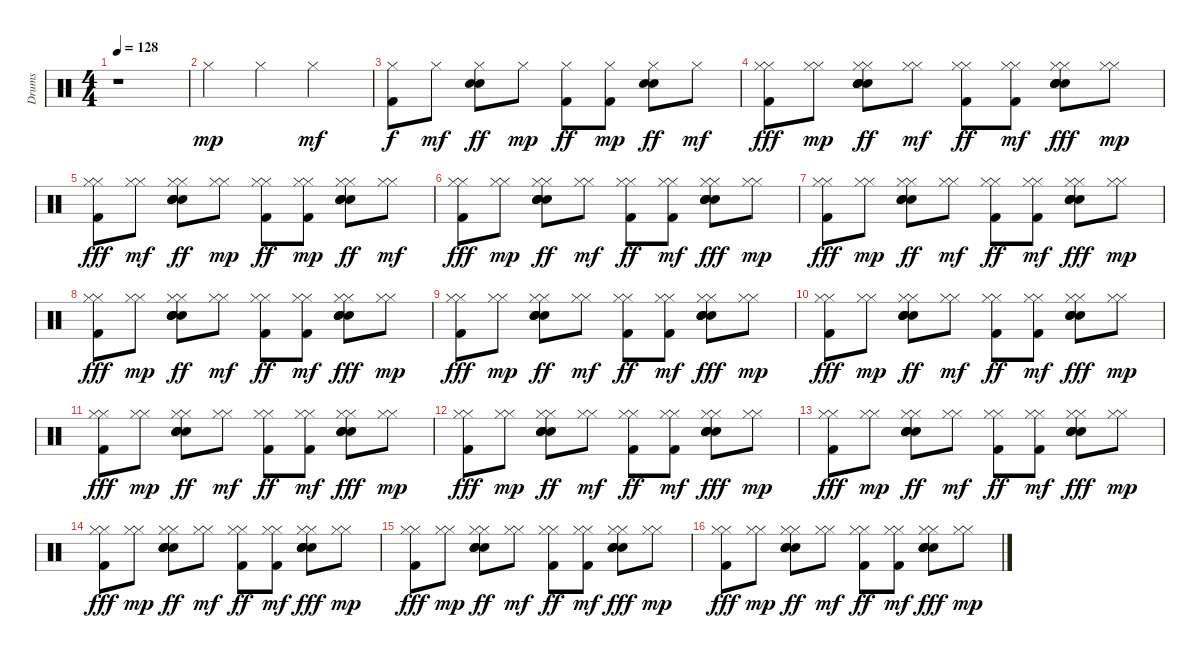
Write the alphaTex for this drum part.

\track ("Drums" "Drums") {instrument percussion}
\staff {score}
\articulation defaults
\ts (4 4)
\tempo 128
\tempo 127
\tempo 128
\clef neutral
\ks c
r.1{dy mp} |
"Hi-Hat (closed)".4 "Hi-Hat (closed)".4 "Hi-Hat (closed)".2{dy mf} |
("Kick (hit) 2" "Hi-Hat (closed)").8{dy f} "Hi-Hat (closed)".8{dy mf} ("Snare (hit) 2" "Hi-Hat (closed)" "Electric Snare (hit)").8{dy ff} "Hi-Hat (closed)".8{dy mp} ("Hi-Hat (closed)" "Kick (hit) 2").8{dy ff} ("Hi-Hat (closed)" "Kick (hit) 2").8{dy mp} ("Snare (hit) 2" "Hi-Hat (closed)" "Electric Snare (hit)").8{dy ff} "Hi-Hat (closed)".8{dy mf} |
("Kick (hit) 2" "Hi-Hat (closed)" "Hi-Hat (closed)").8{dy fff} ("Hi-Hat (closed)" "Hi-Hat (closed)").8{dy mp} ("Hi-Hat (closed)" "Hi-Hat (closed)" "Snare (hit) 2" "Electric Snare (hit)" "Electric Snare (hit)" "Electric Snare (hit)").8{dy ff} ("Hi-Hat (closed)" "Hi-Hat (closed)").8{dy mf} ("Kick (hit) 2" "Hi-Hat (closed)" "Hi-Hat (closed)").8{dy ff} ("Kick (hit) 2" "Hi-Hat (closed)" "Hi-Hat (closed)").8{dy mf} ("Snare (hit) 2" "Hi-Hat (closed)" "Hi-Hat (closed)" "Electric Snare (hit)" "Electric Snare (hit)" "Electric Snare (hit)").8{dy fff} ("Hi-Hat (closed)" "Hi-Hat (closed)").8{dy mp} |
("Hi-Hat (closed)" "Hi-Hat (closed)" "Kick (hit) 2").8{dy fff} ("Hi-Hat (closed)" "Hi-Hat (closed)").8{dy mf} ("Hi-Hat (closed)" "Hi-Hat (closed)" "Snare (hit) 2" "Electric Snare (hit)" "Electric Snare (hit)" "Electric Snare (hit)").8{dy ff} ("Hi-Hat (closed)" "Hi-Hat (closed)").8{dy mp} ("Hi-Hat (closed)" "Hi-Hat (closed)" "Kick (hit) 2").8{dy ff} ("Hi-Hat (closed)" "Hi-Hat (closed)" "Kick (hit) 2").8{dy mp} ("Hi-Hat (closed)" "Snare (hit) 2" "Hi-Hat (closed)" "Electric Snare (hit)" "Electric Snare (hit)" "Electric Snare (hit)").8{dy ff} ("Hi-Hat (closed)" "Hi-Hat (closed)").8{dy mf} |
("Kick (hit) 2" "Hi-Hat (closed)" "Hi-Hat (closed)").8{dy fff} ("Hi-Hat (closed)" "Hi-Hat (closed)").8{dy mp} ("Hi-Hat (closed)" "Hi-Hat (closed)" "Snare (hit) 2" "Electric Snare (hit)" "Electric Snare (hit)" "Electric Snare (hit)").8{dy ff} ("Hi-Hat (closed)" "Hi-Hat (closed)").8{dy mf} ("Kick (hit) 2" "Hi-Hat (closed)" "Hi-Hat (closed)").8{dy ff} ("Kick (hit) 2" "Hi-Hat (closed)" "Hi-Hat (closed)").8{dy mf} ("Snare (hit) 2" "Hi-Hat (closed)" "Hi-Hat (closed)" "Electric Snare (hit)" "Electric Snare (hit)" "Electric Snare (hit)").8{dy fff} ("Hi-Hat (closed)" "Hi-Hat (closed)").8{dy mp} |
("Kick (hit) 2" "Hi-Hat (closed)" "Hi-Hat (closed)").8{dy fff} ("Hi-Hat (closed)" "Hi-Hat (closed)").8{dy mp} ("Hi-Hat (closed)" "Hi-Hat (closed)" "Snare (hit) 2" "Electric Snare (hit)" "Electric Snare (hit)" "Electric Snare (hit)").8{dy ff} ("Hi-Hat (closed)" "Hi-Hat (closed)").8{dy mf} ("Kick (hit) 2" "Hi-Hat (closed)" "Hi-Hat (closed)").8{dy ff} ("Kick (hit) 2" "Hi-Hat (closed)" "Hi-Hat (closed)").8{dy mf} ("Snare (hit) 2" "Hi-Hat (closed)" "Hi-Hat (closed)" "Electric Snare (hit)" "Electric Snare (hit)" "Electric Snare (hit)").8{dy fff} ("Hi-Hat (closed)" "Hi-Hat (closed)").8{dy mp} |
("Kick (hit) 2" "Hi-Hat (closed)" "Hi-Hat (closed)").8{dy fff} ("Hi-Hat (closed)" "Hi-Hat (closed)").8{dy mp} ("Hi-Hat (closed)" "Hi-Hat (closed)" "Snare (hit) 2" "Electric Snare (hit)" "Electric Snare (hit)" "Electric Snare (hit)").8{dy ff} ("Hi-Hat (closed)" "Hi-Hat (closed)").8{dy mf} ("Kick (hit) 2" "Hi-Hat (closed)" "Hi-Hat (closed)").8{dy ff} ("Kick (hit) 2" "Hi-Hat (closed)" "Hi-Hat (closed)").8{dy mf} ("Snare (hit) 2" "Hi-Hat (closed)" "Hi-Hat (closed)" "Electric Snare (hit)" "Electric Snare (hit)" "Electric Snare (hit)").8{dy fff} ("Hi-Hat (closed)" "Hi-Hat (closed)").8{dy mp} |
("Kick (hit) 2" "Hi-Hat (closed)" "Hi-Hat (closed)").8{dy fff} ("Hi-Hat (closed)" "Hi-Hat (closed)").8{dy mp} ("Hi-Hat (closed)" "Hi-Hat (closed)" "Snare (hit) 2" "Electric Snare (hit)" "Electric Snare (hit)" "Electric Snare (hit)").8{dy ff} ("Hi-Hat (closed)" "Hi-Hat (closed)").8{dy mf} ("Kick (hit) 2" "Hi-Hat (closed)" "Hi-Hat (closed)").8{dy ff} ("Kick (hit) 2" "Hi-Hat (closed)" "Hi-Hat (closed)").8{dy mf} ("Snare (hit) 2" "Hi-Hat (closed)" "Hi-Hat (closed)" "Electric Snare (hit)" "Electric Snare (hit)" "Electric Snare (hit)").8{dy fff} ("Hi-Hat (closed)" "Hi-Hat (closed)").8{dy mp} |
("Kick (hit) 2" "Hi-Hat (closed)" "Hi-Hat (closed)").8{dy fff} ("Hi-Hat (closed)" "Hi-Hat (closed)").8{dy mp} ("Hi-Hat (closed)" "Hi-Hat (closed)" "Snare (hit) 2" "Electric Snare (hit)" "Electric Snare (hit)" "Electric Snare (hit)").8{dy ff} ("Hi-Hat (closed)" "Hi-Hat (closed)").8{dy mf} ("Kick (hit) 2" "Hi-Hat (closed)" "Hi-Hat (closed)").8{dy ff} ("Kick (hit) 2" "Hi-Hat (closed)" "Hi-Hat (closed)").8{dy mf} ("Snare (hit) 2" "Hi-Hat (closed)" "Hi-Hat (closed)" "Electric Snare (hit)" "Electric Snare (hit)" "Electric Snare (hit)").8{dy fff} ("Hi-Hat (closed)" "Hi-Hat (closed)").8{dy mp} |
("Kick (hit) 2" "Hi-Hat (closed)" "Hi-Hat (closed)").8{dy fff} ("Hi-Hat (closed)" "Hi-Hat (closed)").8{dy mp} ("Hi-Hat (closed)" "Hi-Hat (closed)" "Snare (hit) 2" "Electric Snare (hit)" "Electric Snare (hit)" "Electric Snare (hit)").8{dy ff} ("Hi-Hat (closed)" "Hi-Hat (closed)").8{dy mf} ("Kick (hit) 2" "Hi-Hat (closed)" "Hi-Hat (closed)").8{dy ff} ("Kick (hit) 2" "Hi-Hat (closed)" "Hi-Hat (closed)").8{dy mf} ("Snare (hit) 2" "Hi-Hat (closed)" "Hi-Hat (closed)" "Electric Snare (hit)" "Electric Snare (hit)" "Electric Snare (hit)").8{dy fff} ("Hi-Hat (closed)" "Hi-Hat (closed)").8{dy mp} |
("Kick (hit) 2" "Hi-Hat (closed)" "Hi-Hat (closed)").8{dy fff} ("Hi-Hat (closed)" "Hi-Hat (closed)").8{dy mp} ("Hi-Hat (closed)" "Hi-Hat (closed)" "Snare (hit) 2" "Electric Snare (hit)" "Electric Snare (hit)" "Electric Snare (hit)").8{dy ff} ("Hi-Hat (closed)" "Hi-Hat (closed)").8{dy mf} ("Kick (hit) 2" "Hi-Hat (closed)" "Hi-Hat (closed)").8{dy ff} ("Kick (hit) 2" "Hi-Hat (closed)" "Hi-Hat (closed)").8{dy mf} ("Snare (hit) 2" "Hi-Hat (closed)" "Hi-Hat (closed)" "Electric Snare (hit)" "Electric Snare (hit)" "Electric Snare (hit)").8{dy fff} ("Hi-Hat (closed)" "Hi-Hat (closed)").8{dy mp} |
("Kick (hit) 2" "Hi-Hat (closed)" "Hi-Hat (closed)").8{dy fff} ("Hi-Hat (closed)" "Hi-Hat (closed)").8{dy mp} ("Hi-Hat (closed)" "Hi-Hat (closed)" "Snare (hit) 2" "Electric Snare (hit)" "Electric Snare (hit)" "Electric Snare (hit)").8{dy ff} ("Hi-Hat (closed)" "Hi-Hat (closed)").8{dy mf} ("Kick (hit) 2" "Hi-Hat (closed)" "Hi-Hat (closed)").8{dy ff} ("Kick (hit) 2" "Hi-Hat (closed)" "Hi-Hat (closed)").8{dy mf} ("Snare (hit) 2" "Hi-Hat (closed)" "Hi-Hat (closed)" "Electric Snare (hit)" "Electric Snare (hit)" "Electric Snare (hit)").8{dy fff} ("Hi-Hat (closed)" "Hi-Hat (closed)").8{dy mp} |
("Kick (hit) 2" "Hi-Hat (closed)" "Hi-Hat (closed)").8{dy fff} ("Hi-Hat (closed)" "Hi-Hat (closed)").8{dy mp} ("Hi-Hat (closed)" "Hi-Hat (closed)" "Snare (hit) 2" "Electric Snare (hit)" "Electric Snare (hit)" "Electric Snare (hit)").8{dy ff} ("Hi-Hat (closed)" "Hi-Hat (closed)").8{dy mf} ("Kick (hit) 2" "Hi-Hat (closed)" "Hi-Hat (closed)").8{dy ff} ("Kick (hit) 2" "Hi-Hat (closed)" "Hi-Hat (closed)").8{dy mf} ("Snare (hit) 2" "Hi-Hat (closed)" "Hi-Hat (closed)" "Electric Snare (hit)" "Electric Snare (hit)" "Electric Snare (hit)").8{dy fff} ("Hi-Hat (closed)" "Hi-Hat (closed)").8{dy mp} |
("Kick (hit) 2" "Hi-Hat (closed)" "Hi-Hat (closed)").8{dy fff} ("Hi-Hat (closed)" "Hi-Hat (closed)").8{dy mp} ("Hi-Hat (closed)" "Hi-Hat (closed)" "Snare (hit) 2" "Electric Snare (hit)" "Electric Snare (hit)" "Electric Snare (hit)").8{dy ff} ("Hi-Hat (closed)" "Hi-Hat (closed)").8{dy mf} ("Kick (hit) 2" "Hi-Hat (closed)" "Hi-Hat (closed)").8{dy ff} ("Kick (hit) 2" "Hi-Hat (closed)" "Hi-Hat (closed)").8{dy mf} ("Snare (hit) 2" "Hi-Hat (closed)" "Hi-Hat (closed)" "Electric Snare (hit)" "Electric Snare (hit)" "Electric Snare (hit)").8{dy fff} ("Hi-Hat (closed)" "Hi-Hat (closed)").8{dy mp} |
("Kick (hit) 2" "Hi-Hat (closed)" "Hi-Hat (closed)").8{dy fff} ("Hi-Hat (closed)" "Hi-Hat (closed)").8{dy mp} ("Hi-Hat (closed)" "Hi-Hat (closed)" "Snare (hit) 2" "Electric Snare (hit)" "Electric Snare (hit)" "Electric Snare (hit)").8{dy ff} ("Hi-Hat (closed)" "Hi-Hat (closed)").8{dy mf} ("Kick (hit) 2" "Hi-Hat (closed)" "Hi-Hat (closed)").8{dy ff} ("Kick (hit) 2" "Hi-Hat (closed)" "Hi-Hat (closed)").8{dy mf} ("Snare (hit) 2" "Hi-Hat (closed)" "Hi-Hat (closed)" "Electric Snare (hit)" "Electric Snare (hit)" "Electric Snare (hit)").8{dy fff} ("Hi-Hat (closed)" "Hi-Hat (closed)").8{dy mp}
